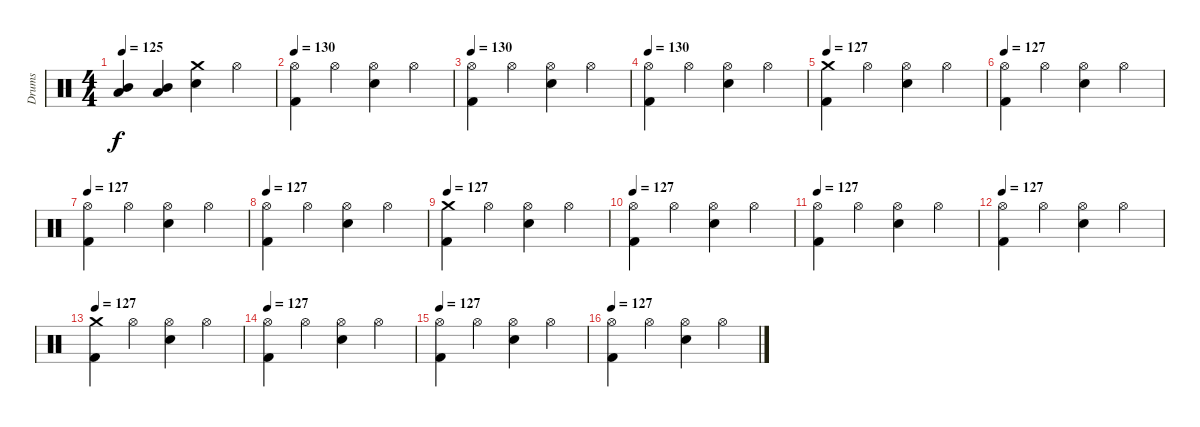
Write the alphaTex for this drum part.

\track ("Drums" "Drums") {instrument percussion}
\staff {score}
\articulation defaults
\ts (4 4)
\tempo 127
\tempo 125
\clef neutral
\ks c
("Mid Tom (hit)" "Low Tom (hit)").4{dy f} ("Mid Tom (hit)" "Low Tom (hit)").4 ("Crash medium (hit)" "Electric Snare (hit)").4 "Hi-Hat (open)".4 |
\tempo 130
("Hi-Hat (open)" "Kick (hit) 2").4 "Hi-Hat (open)".4 ("Hi-Hat (open)" "Electric Snare (hit)").4 "Hi-Hat (open)".4 |
\tempo 130
("Hi-Hat (open)" "Kick (hit) 2").4 "Hi-Hat (open)".4 ("Hi-Hat (open)" "Electric Snare (hit)").4 "Hi-Hat (open)".4 |
\tempo 130
("Hi-Hat (open)" "Kick (hit) 2").4 "Hi-Hat (open)".4 ("Hi-Hat (open)" "Electric Snare (hit)").4 "Hi-Hat (open)".4 |
\tempo 130
\tempo 127
("Crash medium (hit)" "Kick (hit) 2").4 "Hi-Hat (open)".4 ("Hi-Hat (open)" "Electric Snare (hit)").4 "Hi-Hat (open)".4 |
\tempo 130
\tempo 127
("Hi-Hat (open)" "Kick (hit) 2").4 "Hi-Hat (open)".4 ("Hi-Hat (open)" "Electric Snare (hit)").4 "Hi-Hat (open)".4 |
\tempo 130
\tempo 127
("Hi-Hat (open)" "Kick (hit) 2").4 "Hi-Hat (open)".4 ("Hi-Hat (open)" "Electric Snare (hit)").4 "Hi-Hat (open)".4 |
\tempo 130
\tempo 127
("Hi-Hat (open)" "Kick (hit) 2").4 "Hi-Hat (open)".4 ("Hi-Hat (open)" "Electric Snare (hit)").4 "Hi-Hat (open)".4 |
\tempo 130
\tempo 127
("Crash medium (hit)" "Kick (hit) 2").4 "Hi-Hat (open)".4 ("Hi-Hat (open)" "Electric Snare (hit)").4 "Hi-Hat (open)".4 |
\tempo 130
\tempo 127
("Hi-Hat (open)" "Kick (hit) 2").4 "Hi-Hat (open)".4 ("Hi-Hat (open)" "Electric Snare (hit)").4 "Hi-Hat (open)".4 |
\tempo 130
\tempo 127
("Hi-Hat (open)" "Kick (hit) 2").4 "Hi-Hat (open)".4 ("Hi-Hat (open)" "Electric Snare (hit)").4 "Hi-Hat (open)".4 |
\tempo 130
\tempo 127
("Hi-Hat (open)" "Kick (hit) 2").4 "Hi-Hat (open)".4 ("Hi-Hat (open)" "Electric Snare (hit)").4 "Hi-Hat (open)".4 |
\tempo 130
\tempo 127
("Crash medium (hit)" "Kick (hit) 2").4 "Hi-Hat (open)".4 ("Hi-Hat (open)" "Electric Snare (hit)").4 "Hi-Hat (open)".4 |
\tempo 130
\tempo 127
("Hi-Hat (open)" "Kick (hit) 2").4 "Hi-Hat (open)".4 ("Hi-Hat (open)" "Electric Snare (hit)").4 "Hi-Hat (open)".4 |
\tempo 130
\tempo 127
("Hi-Hat (open)" "Kick (hit) 2").4 "Hi-Hat (open)".4 ("Hi-Hat (open)" "Electric Snare (hit)").4 "Hi-Hat (open)".4 |
\tempo 130
\tempo 127
("Hi-Hat (open)" "Kick (hit) 2").4 "Hi-Hat (open)".4 ("Hi-Hat (open)" "Electric Snare (hit)").4 "Hi-Hat (open)".4
